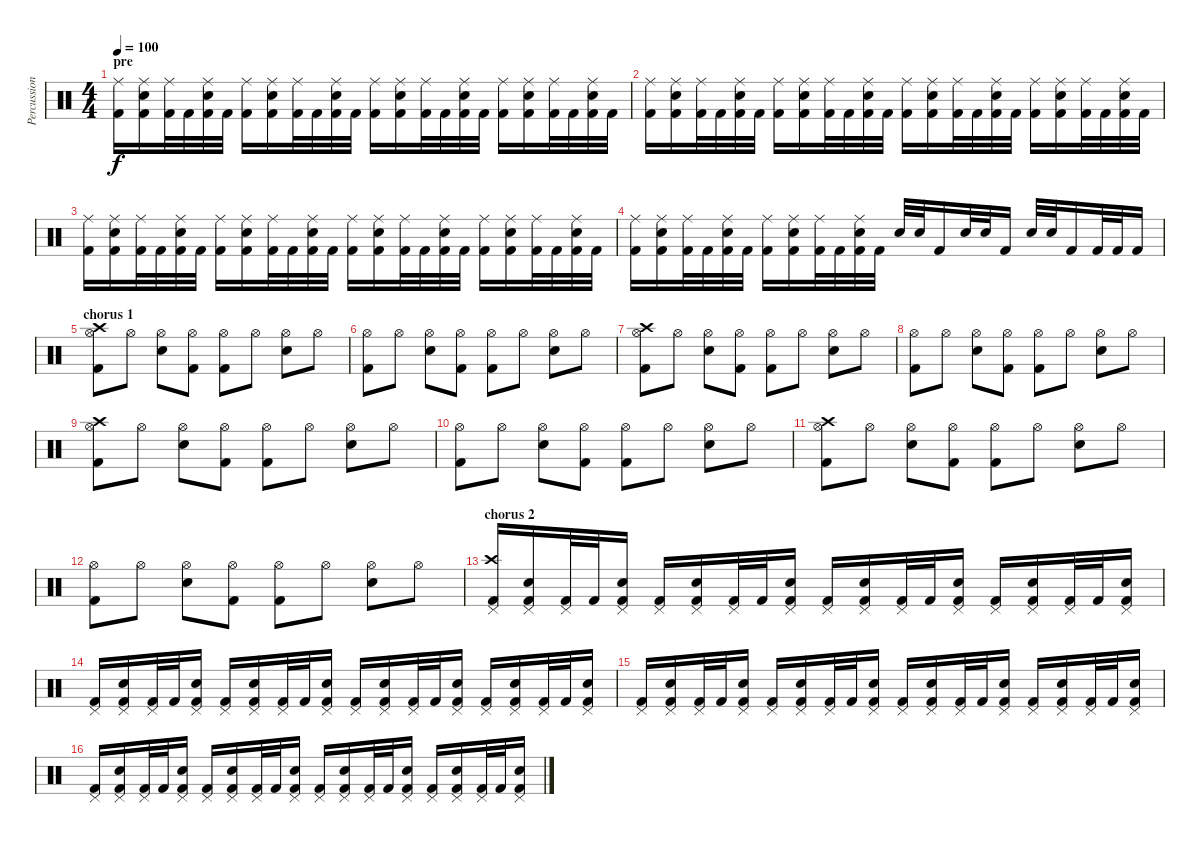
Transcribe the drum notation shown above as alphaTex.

\track ("Percussion" "Percussion") {instrument percussion}
\staff {score}
\articulation defaults
\ts (4 4)
\section ("" "pre")
\tempo 100
\clef neutral
\ks c
("Ride (middle)" "Kick (hit) 2").16{dy f} ("Ride (middle)" "Electric Snare (hit)" "Kick (hit) 2").16 ("Ride (middle)" "Kick (hit) 2").32 "Kick (hit) 2".32 ("Ride (middle)" "Electric Snare (hit)" "Kick (hit) 2").32 "Kick (hit) 2".32 ("Ride (middle)" "Kick (hit) 2").16 ("Ride (middle)" "Electric Snare (hit)" "Kick (hit) 2").16 ("Ride (middle)" "Kick (hit) 2").32 "Kick (hit) 2".32 ("Ride (middle)" "Electric Snare (hit)" "Kick (hit) 2").32 "Kick (hit) 2".32 ("Ride (middle)" "Kick (hit) 2").16 ("Ride (middle)" "Electric Snare (hit)" "Kick (hit) 2").16 ("Ride (middle)" "Kick (hit) 2").32 "Kick (hit) 2".32 ("Ride (middle)" "Electric Snare (hit)" "Kick (hit) 2").32 "Kick (hit) 2".32 ("Ride (middle)" "Kick (hit) 2").16 ("Ride (middle)" "Electric Snare (hit)" "Kick (hit) 2").16 ("Ride (middle)" "Kick (hit) 2").32 "Kick (hit) 2".32 ("Ride (middle)" "Electric Snare (hit)" "Kick (hit) 2").32 "Kick (hit) 2".32 |
("Ride (middle)" "Kick (hit) 2").16 ("Ride (middle)" "Electric Snare (hit)" "Kick (hit) 2").16 ("Ride (middle)" "Kick (hit) 2").32 "Kick (hit) 2".32 ("Ride (middle)" "Electric Snare (hit)" "Kick (hit) 2").32 "Kick (hit) 2".32 ("Ride (middle)" "Kick (hit) 2").16 ("Ride (middle)" "Electric Snare (hit)" "Kick (hit) 2").16 ("Ride (middle)" "Kick (hit) 2").32 "Kick (hit) 2".32 ("Ride (middle)" "Electric Snare (hit)" "Kick (hit) 2").32 "Kick (hit) 2".32 ("Ride (middle)" "Kick (hit) 2").16 ("Ride (middle)" "Electric Snare (hit)" "Kick (hit) 2").16 ("Ride (middle)" "Kick (hit) 2").32 "Kick (hit) 2".32 ("Ride (middle)" "Electric Snare (hit)" "Kick (hit) 2").32 "Kick (hit) 2".32 ("Ride (middle)" "Kick (hit) 2").16 ("Ride (middle)" "Electric Snare (hit)" "Kick (hit) 2").16 ("Ride (middle)" "Kick (hit) 2").32 "Kick (hit) 2".32 ("Ride (middle)" "Electric Snare (hit)" "Kick (hit) 2").32 "Kick (hit) 2".32 |
("Ride (middle)" "Kick (hit) 2").16 ("Ride (middle)" "Electric Snare (hit)" "Kick (hit) 2").16 ("Ride (middle)" "Kick (hit) 2").32 "Kick (hit) 2".32 ("Ride (middle)" "Electric Snare (hit)" "Kick (hit) 2").32 "Kick (hit) 2".32 ("Ride (middle)" "Kick (hit) 2").16 ("Ride (middle)" "Electric Snare (hit)" "Kick (hit) 2").16 ("Ride (middle)" "Kick (hit) 2").32 "Kick (hit) 2".32 ("Ride (middle)" "Electric Snare (hit)" "Kick (hit) 2").32 "Kick (hit) 2".32 ("Ride (middle)" "Kick (hit) 2").16 ("Ride (middle)" "Electric Snare (hit)" "Kick (hit) 2").16 ("Ride (middle)" "Kick (hit) 2").32 "Kick (hit) 2".32 ("Ride (middle)" "Electric Snare (hit)" "Kick (hit) 2").32 "Kick (hit) 2".32 ("Ride (middle)" "Kick (hit) 2").16 ("Ride (middle)" "Electric Snare (hit)" "Kick (hit) 2").16 ("Ride (middle)" "Kick (hit) 2").32 "Kick (hit) 2".32 ("Ride (middle)" "Electric Snare (hit)" "Kick (hit) 2").32 "Kick (hit) 2".32 |
("Ride (middle)" "Kick (hit) 2").16 ("Ride (middle)" "Electric Snare (hit)" "Kick (hit) 2").16 ("Ride (middle)" "Kick (hit) 2").32 "Kick (hit) 2".32 ("Ride (middle)" "Electric Snare (hit)" "Kick (hit) 2").32 "Kick (hit) 2".32 ("Ride (middle)" "Kick (hit) 2").16 ("Ride (middle)" "Electric Snare (hit)" "Kick (hit) 2").16 ("Ride (middle)" "Kick (hit) 2").32 "Kick (hit) 2".32 ("Ride (middle)" "Electric Snare (hit)" "Kick (hit) 2").32 "Kick (hit) 2".32 "Electric Snare (hit)".32 "Electric Snare (hit)".32 "Kick (hit) 2".16 "Electric Snare (hit)".32 "Electric Snare (hit)".32 "Kick (hit) 2".16 "Electric Snare (hit)".32 "Electric Snare (hit)".32 "Kick (hit) 2".16 "Kick (hit) 2".32 "Kick (hit) 2".32 "Kick (hit) 2".16 |
\section ("" "chorus 1")
("Crash high (hit)" "Hi-Hat (open)" "Kick (hit) 2").8 "Hi-Hat (open)".8 ("Hi-Hat (open)" "Electric Snare (hit)").8 ("Hi-Hat (open)" "Kick (hit) 2").8 ("Hi-Hat (open)" "Kick (hit) 2").8 "Hi-Hat (open)".8 ("Hi-Hat (open)" "Electric Snare (hit)").8 "Hi-Hat (open)".8 |
("Hi-Hat (open)" "Kick (hit) 2").8 "Hi-Hat (open)".8 ("Hi-Hat (open)" "Electric Snare (hit)").8 ("Hi-Hat (open)" "Kick (hit) 2").8 ("Hi-Hat (open)" "Kick (hit) 2").8 "Hi-Hat (open)".8 ("Hi-Hat (open)" "Electric Snare (hit)").8 "Hi-Hat (open)".8 |
("Crash high (hit)" "Hi-Hat (open)" "Kick (hit) 2").8 "Hi-Hat (open)".8 ("Hi-Hat (open)" "Electric Snare (hit)").8 ("Hi-Hat (open)" "Kick (hit) 2").8 ("Hi-Hat (open)" "Kick (hit) 2").8 "Hi-Hat (open)".8 ("Hi-Hat (open)" "Electric Snare (hit)").8 "Hi-Hat (open)".8 |
("Hi-Hat (open)" "Kick (hit) 2").8 "Hi-Hat (open)".8 ("Hi-Hat (open)" "Electric Snare (hit)").8 ("Hi-Hat (open)" "Kick (hit) 2").8 ("Hi-Hat (open)" "Kick (hit) 2").8 "Hi-Hat (open)".8 ("Hi-Hat (open)" "Electric Snare (hit)").8 "Hi-Hat (open)".8 |
("Crash high (hit)" "Hi-Hat (open)" "Kick (hit) 2").8 "Hi-Hat (open)".8 ("Hi-Hat (open)" "Electric Snare (hit)").8 ("Hi-Hat (open)" "Kick (hit) 2").8 ("Hi-Hat (open)" "Kick (hit) 2").8 "Hi-Hat (open)".8 ("Hi-Hat (open)" "Electric Snare (hit)").8 "Hi-Hat (open)".8 |
("Hi-Hat (open)" "Kick (hit) 2").8 "Hi-Hat (open)".8 ("Hi-Hat (open)" "Electric Snare (hit)").8 ("Hi-Hat (open)" "Kick (hit) 2").8 ("Hi-Hat (open)" "Kick (hit) 2").8 "Hi-Hat (open)".8 ("Hi-Hat (open)" "Electric Snare (hit)").8 "Hi-Hat (open)".8 |
("Crash high (hit)" "Hi-Hat (open)" "Kick (hit) 2").8 "Hi-Hat (open)".8 ("Hi-Hat (open)" "Electric Snare (hit)").8 ("Hi-Hat (open)" "Kick (hit) 2").8 ("Hi-Hat (open)" "Kick (hit) 2").8 "Hi-Hat (open)".8 ("Hi-Hat (open)" "Electric Snare (hit)").8 "Hi-Hat (open)".8 |
("Hi-Hat (open)" "Kick (hit) 2").8 "Hi-Hat (open)".8 ("Hi-Hat (open)" "Electric Snare (hit)").8 ("Hi-Hat (open)" "Kick (hit) 2").8 ("Hi-Hat (open)" "Kick (hit) 2").8 "Hi-Hat (open)".8 ("Hi-Hat (open)" "Electric Snare (hit)").8 "Hi-Hat (open)".8 |
\section ("" "chorus 2")
("Crash high (hit)" "Pedal Hi-Hat (hit)" "Kick (hit) 2").16 ("Pedal Hi-Hat (hit)" "Electric Snare (hit)" "Kick (hit) 2").16 ("Pedal Hi-Hat (hit)" "Kick (hit) 2").32 "Kick (hit) 2".32 ("Pedal Hi-Hat (hit)" "Electric Snare (hit)" "Kick (hit) 2").16 ("Pedal Hi-Hat (hit)" "Kick (hit) 2").16 ("Pedal Hi-Hat (hit)" "Electric Snare (hit)" "Kick (hit) 2").16 ("Pedal Hi-Hat (hit)" "Kick (hit) 2").32 "Kick (hit) 2".32 ("Pedal Hi-Hat (hit)" "Electric Snare (hit)" "Kick (hit) 2").16 ("Pedal Hi-Hat (hit)" "Kick (hit) 2").16 ("Pedal Hi-Hat (hit)" "Electric Snare (hit)" "Kick (hit) 2").16 ("Pedal Hi-Hat (hit)" "Kick (hit) 2").32 "Kick (hit) 2".32 ("Pedal Hi-Hat (hit)" "Electric Snare (hit)" "Kick (hit) 2").16 ("Pedal Hi-Hat (hit)" "Kick (hit) 2").16 ("Pedal Hi-Hat (hit)" "Electric Snare (hit)" "Kick (hit) 2").16 ("Pedal Hi-Hat (hit)" "Kick (hit) 2").32 "Kick (hit) 2".32 ("Pedal Hi-Hat (hit)" "Electric Snare (hit)" "Kick (hit) 2").16 |
("Pedal Hi-Hat (hit)" "Kick (hit) 2").16 ("Pedal Hi-Hat (hit)" "Electric Snare (hit)" "Kick (hit) 2").16 ("Pedal Hi-Hat (hit)" "Kick (hit) 2").32 "Kick (hit) 2".32 ("Pedal Hi-Hat (hit)" "Electric Snare (hit)" "Kick (hit) 2").16 ("Pedal Hi-Hat (hit)" "Kick (hit) 2").16 ("Pedal Hi-Hat (hit)" "Electric Snare (hit)" "Kick (hit) 2").16 ("Pedal Hi-Hat (hit)" "Kick (hit) 2").32 "Kick (hit) 2".32 ("Pedal Hi-Hat (hit)" "Electric Snare (hit)" "Kick (hit) 2").16 ("Pedal Hi-Hat (hit)" "Kick (hit) 2").16 ("Pedal Hi-Hat (hit)" "Electric Snare (hit)" "Kick (hit) 2").16 ("Pedal Hi-Hat (hit)" "Kick (hit) 2").32 "Kick (hit) 2".32 ("Pedal Hi-Hat (hit)" "Electric Snare (hit)" "Kick (hit) 2").16 ("Pedal Hi-Hat (hit)" "Kick (hit) 2").16 ("Pedal Hi-Hat (hit)" "Electric Snare (hit)" "Kick (hit) 2").16 ("Pedal Hi-Hat (hit)" "Kick (hit) 2").32 "Kick (hit) 2".32 ("Pedal Hi-Hat (hit)" "Electric Snare (hit)" "Kick (hit) 2").16 |
("Pedal Hi-Hat (hit)" "Kick (hit) 2").16 ("Pedal Hi-Hat (hit)" "Electric Snare (hit)" "Kick (hit) 2").16 ("Pedal Hi-Hat (hit)" "Kick (hit) 2").32 "Kick (hit) 2".32 ("Pedal Hi-Hat (hit)" "Electric Snare (hit)" "Kick (hit) 2").16 ("Pedal Hi-Hat (hit)" "Kick (hit) 2").16 ("Pedal Hi-Hat (hit)" "Electric Snare (hit)" "Kick (hit) 2").16 ("Pedal Hi-Hat (hit)" "Kick (hit) 2").32 "Kick (hit) 2".32 ("Pedal Hi-Hat (hit)" "Electric Snare (hit)" "Kick (hit) 2").16 ("Pedal Hi-Hat (hit)" "Kick (hit) 2").16 ("Pedal Hi-Hat (hit)" "Electric Snare (hit)" "Kick (hit) 2").16 ("Pedal Hi-Hat (hit)" "Kick (hit) 2").32 "Kick (hit) 2".32 ("Pedal Hi-Hat (hit)" "Electric Snare (hit)" "Kick (hit) 2").16 ("Pedal Hi-Hat (hit)" "Kick (hit) 2").16 ("Pedal Hi-Hat (hit)" "Electric Snare (hit)" "Kick (hit) 2").16 ("Pedal Hi-Hat (hit)" "Kick (hit) 2").32 "Kick (hit) 2".32 ("Pedal Hi-Hat (hit)" "Electric Snare (hit)" "Kick (hit) 2").16 |
("Pedal Hi-Hat (hit)" "Kick (hit) 2").16 ("Pedal Hi-Hat (hit)" "Electric Snare (hit)" "Kick (hit) 2").16 ("Pedal Hi-Hat (hit)" "Kick (hit) 2").32 "Kick (hit) 2".32 ("Pedal Hi-Hat (hit)" "Electric Snare (hit)" "Kick (hit) 2").16 ("Pedal Hi-Hat (hit)" "Kick (hit) 2").16 ("Pedal Hi-Hat (hit)" "Electric Snare (hit)" "Kick (hit) 2").16 ("Pedal Hi-Hat (hit)" "Kick (hit) 2").32 "Kick (hit) 2".32 ("Pedal Hi-Hat (hit)" "Electric Snare (hit)" "Kick (hit) 2").16 ("Pedal Hi-Hat (hit)" "Kick (hit) 2").16 ("Pedal Hi-Hat (hit)" "Electric Snare (hit)" "Kick (hit) 2").16 ("Pedal Hi-Hat (hit)" "Kick (hit) 2").32 "Kick (hit) 2".32 ("Pedal Hi-Hat (hit)" "Electric Snare (hit)" "Kick (hit) 2").16 ("Pedal Hi-Hat (hit)" "Kick (hit) 2").16 ("Pedal Hi-Hat (hit)" "Electric Snare (hit)" "Kick (hit) 2").16 ("Pedal Hi-Hat (hit)" "Kick (hit) 2").32 "Kick (hit) 2".32 ("Pedal Hi-Hat (hit)" "Electric Snare (hit)" "Kick (hit) 2").16
